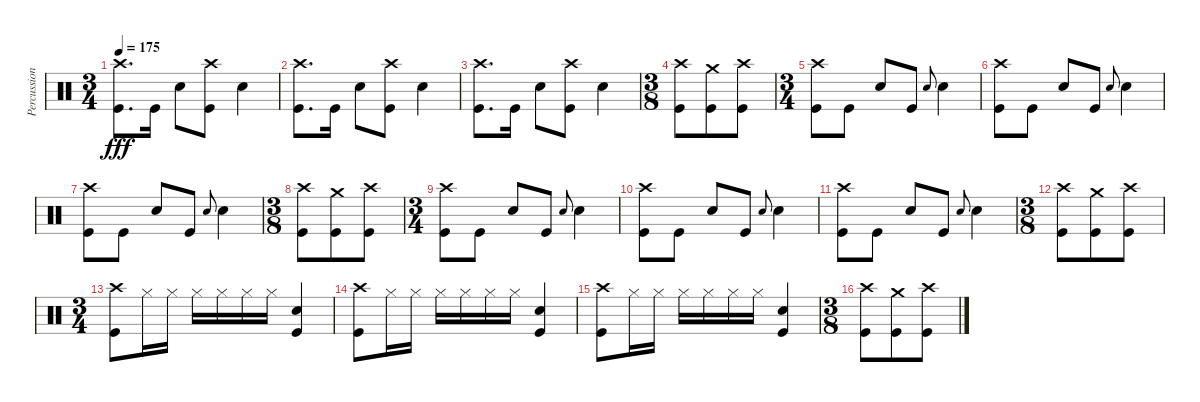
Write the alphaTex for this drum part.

\track ("Percussion" "Percussion") {instrument percussion}
\staff {score}
\articulation defaults
\ts (3 4)
\tempo 175
\clef neutral
\ks c
("Crash high (hit)" "Kick (hit)").8{d dy fff} "Kick (hit)".16 "Snare (hit) 2".8 ("Crash high (hit)" "Kick (hit)").8 "Snare (hit) 2".4 |
("Crash high (hit)" "Kick (hit)").8{d} "Kick (hit)".16 "Snare (hit) 2".8 ("Crash high (hit)" "Kick (hit)").8 "Snare (hit) 2".4 |
("Crash high (hit)" "Kick (hit)").8{d} "Kick (hit)".16 "Snare (hit) 2".8 ("Crash high (hit)" "Kick (hit)").8 "Snare (hit) 2".4 |
\ts (3 8)
("Crash high (hit)" "Kick (hit)").8 ("Crash medium (hit)" "Kick (hit)").8 ("Crash high (hit)" "Kick (hit)").8 |
\ts (3 4)
("Crash high (hit)" "Kick (hit)").8 "Kick (hit)".8 "Snare (hit) 2".8 "Kick (hit)".8 "Snare (hit) 2".8{gr onbeat} "Snare (hit) 2".4 |
("Crash high (hit)" "Kick (hit)").8 "Kick (hit)".8 "Snare (hit) 2".8 "Kick (hit)".8 "Snare (hit) 2".8{gr onbeat} "Snare (hit) 2".4 |
("Crash high (hit)" "Kick (hit)").8 "Kick (hit)".8 "Snare (hit) 2".8 "Kick (hit)".8 "Snare (hit) 2".8{gr onbeat} "Snare (hit) 2".4 |
\ts (3 8)
("Crash high (hit)" "Kick (hit)").8 ("Crash medium (hit)" "Kick (hit)").8 ("Crash high (hit)" "Kick (hit)").8 |
\ts (3 4)
("Crash high (hit)" "Kick (hit)").8 "Kick (hit)".8 "Snare (hit) 2".8 "Kick (hit)".8 "Snare (hit) 2".8{gr onbeat} "Snare (hit) 2".4 |
("Crash high (hit)" "Kick (hit)").8 "Kick (hit)".8 "Snare (hit) 2".8 "Kick (hit)".8 "Snare (hit) 2".8{gr onbeat} "Snare (hit) 2".4 |
("Crash high (hit)" "Kick (hit)").8 "Kick (hit)".8 "Snare (hit) 2".8 "Kick (hit)".8 "Snare (hit) 2".8{gr onbeat} "Snare (hit) 2".4 |
\ts (3 8)
("Crash high (hit)" "Kick (hit)").8 ("Crash medium (hit)" "Kick (hit)").8 ("Crash high (hit)" "Kick (hit)").8 |
\ts (3 4)
("Crash high (hit)" "Kick (hit)").8 "Hi-Hat (closed)".16 "Hi-Hat (closed)".16 "Hi-Hat (closed)".16 "Hi-Hat (closed)".16 "Hi-Hat (closed)".16 "Hi-Hat (closed)".16 ("Snare (hit) 2" "Kick (hit)").4 |
("Crash high (hit)" "Kick (hit)").8 "Hi-Hat (closed)".16 "Hi-Hat (closed)".16 "Hi-Hat (closed)".16 "Hi-Hat (closed)".16 "Hi-Hat (closed)".16 "Hi-Hat (closed)".16 ("Snare (hit) 2" "Kick (hit)").4 |
("Crash high (hit)" "Kick (hit)").8 "Hi-Hat (closed)".16 "Hi-Hat (closed)".16 "Hi-Hat (closed)".16 "Hi-Hat (closed)".16 "Hi-Hat (closed)".16 "Hi-Hat (closed)".16 ("Snare (hit) 2" "Kick (hit)").4 |
\ts (3 8)
("Crash high (hit)" "Kick (hit)").8 ("Crash medium (hit)" "Kick (hit)").8 ("Crash high (hit)" "Kick (hit)").8
